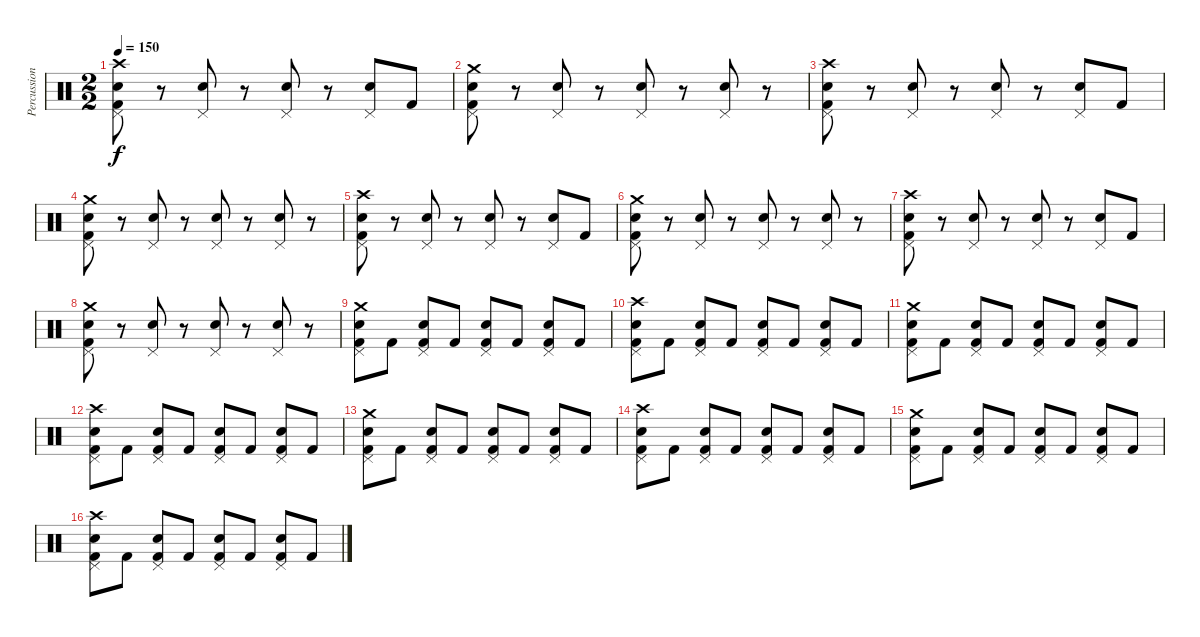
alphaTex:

\track ("Percussion" "Percussion") {instrument percussion}
\staff {score}
\articulation defaults
\ts (2 2)
\tempo 150
\clef neutral
\ks c
("Crash high (hit)" "Pedal Hi-Hat (hit)" "Snare (hit) 2" "Kick (hit) 2").8{dy f} r.8 ("Pedal Hi-Hat (hit)" "Snare (hit) 2").8 r.8 ("Pedal Hi-Hat (hit)" "Snare (hit) 2").8 r.8 ("Pedal Hi-Hat (hit)" "Snare (hit) 2").8 "Kick (hit) 2".8 |
("Crash medium (hit)" "Pedal Hi-Hat (hit)" "Snare (hit) 2" "Kick (hit) 2").8 r.8 ("Pedal Hi-Hat (hit)" "Snare (hit) 2").8 r.8 ("Pedal Hi-Hat (hit)" "Snare (hit) 2").8 r.8 ("Pedal Hi-Hat (hit)" "Snare (hit) 2").8 r.8 |
("Crash high (hit)" "Pedal Hi-Hat (hit)" "Snare (hit) 2" "Kick (hit) 2").8 r.8 ("Pedal Hi-Hat (hit)" "Snare (hit) 2").8 r.8 ("Pedal Hi-Hat (hit)" "Snare (hit) 2").8 r.8 ("Pedal Hi-Hat (hit)" "Snare (hit) 2").8 "Kick (hit) 2".8 |
("Crash medium (hit)" "Pedal Hi-Hat (hit)" "Snare (hit) 2" "Kick (hit) 2").8 r.8 ("Pedal Hi-Hat (hit)" "Snare (hit) 2").8 r.8 ("Pedal Hi-Hat (hit)" "Snare (hit) 2").8 r.8 ("Pedal Hi-Hat (hit)" "Snare (hit) 2").8 r.8 |
("Crash high (hit)" "Pedal Hi-Hat (hit)" "Snare (hit) 2" "Kick (hit) 2").8 r.8 ("Pedal Hi-Hat (hit)" "Snare (hit) 2").8 r.8 ("Pedal Hi-Hat (hit)" "Snare (hit) 2").8 r.8 ("Pedal Hi-Hat (hit)" "Snare (hit) 2").8 "Kick (hit) 2".8 |
("Crash medium (hit)" "Pedal Hi-Hat (hit)" "Snare (hit) 2" "Kick (hit) 2").8 r.8 ("Pedal Hi-Hat (hit)" "Snare (hit) 2").8 r.8 ("Pedal Hi-Hat (hit)" "Snare (hit) 2").8 r.8 ("Pedal Hi-Hat (hit)" "Snare (hit) 2").8 r.8 |
("Crash high (hit)" "Pedal Hi-Hat (hit)" "Snare (hit) 2" "Kick (hit) 2").8 r.8 ("Pedal Hi-Hat (hit)" "Snare (hit) 2").8 r.8 ("Pedal Hi-Hat (hit)" "Snare (hit) 2").8 r.8 ("Pedal Hi-Hat (hit)" "Snare (hit) 2").8 "Kick (hit) 2".8 |
("Crash medium (hit)" "Pedal Hi-Hat (hit)" "Snare (hit) 2" "Kick (hit) 2").8 r.8 ("Pedal Hi-Hat (hit)" "Snare (hit) 2").8 r.8 ("Pedal Hi-Hat (hit)" "Snare (hit) 2").8 r.8 ("Pedal Hi-Hat (hit)" "Snare (hit) 2").8 r.8 |
("Crash medium (hit)" "Pedal Hi-Hat (hit)" "Snare (hit) 2" "Kick (hit) 2").8 "Kick (hit) 2".8 ("Pedal Hi-Hat (hit)" "Snare (hit) 2" "Kick (hit) 2").8 "Kick (hit) 2".8 ("Pedal Hi-Hat (hit)" "Snare (hit) 2" "Kick (hit) 2").8 "Kick (hit) 2".8 ("Pedal Hi-Hat (hit)" "Snare (hit) 2" "Kick (hit) 2").8 "Kick (hit) 2".8 |
("Crash high (hit)" "Pedal Hi-Hat (hit)" "Snare (hit) 2" "Kick (hit) 2").8 "Kick (hit) 2".8 ("Pedal Hi-Hat (hit)" "Snare (hit) 2" "Kick (hit) 2").8 "Kick (hit) 2".8 ("Pedal Hi-Hat (hit)" "Snare (hit) 2" "Kick (hit) 2").8 "Kick (hit) 2".8 ("Pedal Hi-Hat (hit)" "Snare (hit) 2" "Kick (hit) 2").8 "Kick (hit) 2".8 |
("Crash medium (hit)" "Pedal Hi-Hat (hit)" "Snare (hit) 2" "Kick (hit) 2").8 "Kick (hit) 2".8 ("Pedal Hi-Hat (hit)" "Snare (hit) 2" "Kick (hit) 2").8 "Kick (hit) 2".8 ("Pedal Hi-Hat (hit)" "Snare (hit) 2" "Kick (hit) 2").8 "Kick (hit) 2".8 ("Pedal Hi-Hat (hit)" "Snare (hit) 2" "Kick (hit) 2").8 "Kick (hit) 2".8 |
("Crash high (hit)" "Pedal Hi-Hat (hit)" "Snare (hit) 2" "Kick (hit) 2").8 "Kick (hit) 2".8 ("Pedal Hi-Hat (hit)" "Snare (hit) 2" "Kick (hit) 2").8 "Kick (hit) 2".8 ("Pedal Hi-Hat (hit)" "Snare (hit) 2" "Kick (hit) 2").8 "Kick (hit) 2".8 ("Pedal Hi-Hat (hit)" "Snare (hit) 2" "Kick (hit) 2").8 "Kick (hit) 2".8 |
("Crash medium (hit)" "Pedal Hi-Hat (hit)" "Snare (hit) 2" "Kick (hit) 2").8 "Kick (hit) 2".8 ("Pedal Hi-Hat (hit)" "Snare (hit) 2" "Kick (hit) 2").8 "Kick (hit) 2".8 ("Pedal Hi-Hat (hit)" "Snare (hit) 2" "Kick (hit) 2").8 "Kick (hit) 2".8 ("Pedal Hi-Hat (hit)" "Snare (hit) 2" "Kick (hit) 2").8 "Kick (hit) 2".8 |
("Crash high (hit)" "Pedal Hi-Hat (hit)" "Snare (hit) 2" "Kick (hit) 2").8 "Kick (hit) 2".8 ("Pedal Hi-Hat (hit)" "Snare (hit) 2" "Kick (hit) 2").8 "Kick (hit) 2".8 ("Pedal Hi-Hat (hit)" "Snare (hit) 2" "Kick (hit) 2").8 "Kick (hit) 2".8 ("Pedal Hi-Hat (hit)" "Snare (hit) 2" "Kick (hit) 2").8 "Kick (hit) 2".8 |
("Crash medium (hit)" "Pedal Hi-Hat (hit)" "Snare (hit) 2" "Kick (hit) 2").8 "Kick (hit) 2".8 ("Pedal Hi-Hat (hit)" "Snare (hit) 2" "Kick (hit) 2").8 "Kick (hit) 2".8 ("Pedal Hi-Hat (hit)" "Snare (hit) 2" "Kick (hit) 2").8 "Kick (hit) 2".8 ("Pedal Hi-Hat (hit)" "Snare (hit) 2" "Kick (hit) 2").8 "Kick (hit) 2".8 |
("Crash high (hit)" "Pedal Hi-Hat (hit)" "Snare (hit) 2" "Kick (hit) 2").8 "Kick (hit) 2".8 ("Pedal Hi-Hat (hit)" "Snare (hit) 2" "Kick (hit) 2").8 "Kick (hit) 2".8 ("Pedal Hi-Hat (hit)" "Snare (hit) 2" "Kick (hit) 2").8 "Kick (hit) 2".8 ("Pedal Hi-Hat (hit)" "Snare (hit) 2" "Kick (hit) 2").8 "Kick (hit) 2".8
